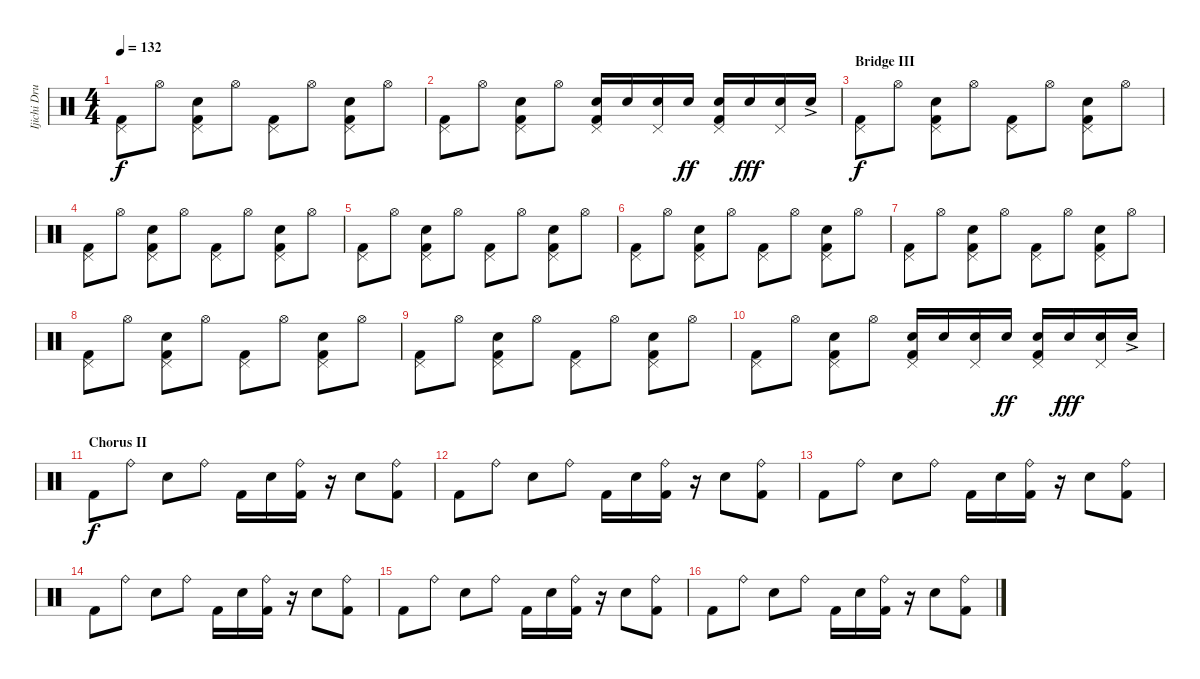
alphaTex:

\track ("Ijichi Drums" "Ijichi Dru") {instrument percussion}
\staff {score}
\articulation defaults
\ts (4 4)
\tempo 132
\clef neutral
\ks c
("Pedal Hi-Hat (hit)" "Kick (hit) 2").8{dy f} "Hi-Hat (open)".8 ("Pedal Hi-Hat (hit)" "Snare (hit) 2" "Kick (hit) 2").8 "Hi-Hat (open)".8 ("Pedal Hi-Hat (hit)" "Kick (hit) 2").8 "Hi-Hat (open)".8 ("Pedal Hi-Hat (hit)" "Snare (hit) 2" "Kick (hit) 2").8 "Hi-Hat (open)".8 |
("Pedal Hi-Hat (hit)" "Kick (hit) 2").8 "Hi-Hat (open)".8 ("Pedal Hi-Hat (hit)" "Snare (hit) 2" "Kick (hit) 2").8 "Hi-Hat (open)".8 ("Pedal Hi-Hat (hit)" "Snare (hit) 2" "Kick (hit) 2").16 "Snare (hit) 2".16 ("Pedal Hi-Hat (hit)" "Snare (hit) 2").16 "Snare (hit) 2".16{dy ff} ("Pedal Hi-Hat (hit)" "Snare (hit) 2" "Kick (hit) 2").16 "Snare (hit) 2".16{dy fff} ("Pedal Hi-Hat (hit)" "Snare (hit) 2").16 "Snare (hit) 2"{ac}.16 |
\section ("" "Bridge III")
("Pedal Hi-Hat (hit)" "Kick (hit) 2").8{dy f} "Hi-Hat (open)".8 ("Pedal Hi-Hat (hit)" "Snare (hit) 2" "Kick (hit) 2").8 "Hi-Hat (open)".8 ("Pedal Hi-Hat (hit)" "Kick (hit) 2").8 "Hi-Hat (open)".8 ("Pedal Hi-Hat (hit)" "Snare (hit) 2" "Kick (hit) 2").8 "Hi-Hat (open)".8 |
("Pedal Hi-Hat (hit)" "Kick (hit) 2").8 "Hi-Hat (open)".8 ("Pedal Hi-Hat (hit)" "Snare (hit) 2" "Kick (hit) 2").8 "Hi-Hat (open)".8 ("Pedal Hi-Hat (hit)" "Kick (hit) 2").8 "Hi-Hat (open)".8 ("Pedal Hi-Hat (hit)" "Snare (hit) 2" "Kick (hit) 2").8 "Hi-Hat (open)".8 |
("Pedal Hi-Hat (hit)" "Kick (hit) 2").8 "Hi-Hat (open)".8 ("Pedal Hi-Hat (hit)" "Snare (hit) 2" "Kick (hit) 2").8 "Hi-Hat (open)".8 ("Pedal Hi-Hat (hit)" "Kick (hit) 2").8 "Hi-Hat (open)".8 ("Pedal Hi-Hat (hit)" "Snare (hit) 2" "Kick (hit) 2").8 "Hi-Hat (open)".8 |
("Pedal Hi-Hat (hit)" "Kick (hit) 2").8 "Hi-Hat (open)".8 ("Pedal Hi-Hat (hit)" "Snare (hit) 2" "Kick (hit) 2").8 "Hi-Hat (open)".8 ("Pedal Hi-Hat (hit)" "Kick (hit) 2").8 "Hi-Hat (open)".8 ("Pedal Hi-Hat (hit)" "Snare (hit) 2" "Kick (hit) 2").8 "Hi-Hat (open)".8 |
("Pedal Hi-Hat (hit)" "Kick (hit) 2").8 "Hi-Hat (open)".8 ("Pedal Hi-Hat (hit)" "Snare (hit) 2" "Kick (hit) 2").8 "Hi-Hat (open)".8 ("Pedal Hi-Hat (hit)" "Kick (hit) 2").8 "Hi-Hat (open)".8 ("Pedal Hi-Hat (hit)" "Snare (hit) 2" "Kick (hit) 2").8 "Hi-Hat (open)".8 |
("Pedal Hi-Hat (hit)" "Kick (hit) 2").8 "Hi-Hat (open)".8 ("Pedal Hi-Hat (hit)" "Snare (hit) 2" "Kick (hit) 2").8 "Hi-Hat (open)".8 ("Pedal Hi-Hat (hit)" "Kick (hit) 2").8 "Hi-Hat (open)".8 ("Pedal Hi-Hat (hit)" "Snare (hit) 2" "Kick (hit) 2").8 "Hi-Hat (open)".8 |
("Pedal Hi-Hat (hit)" "Kick (hit) 2").8 "Hi-Hat (open)".8 ("Pedal Hi-Hat (hit)" "Snare (hit) 2" "Kick (hit) 2").8 "Hi-Hat (open)".8 ("Pedal Hi-Hat (hit)" "Kick (hit) 2").8 "Hi-Hat (open)".8 ("Pedal Hi-Hat (hit)" "Snare (hit) 2" "Kick (hit) 2").8 "Hi-Hat (open)".8 |
("Pedal Hi-Hat (hit)" "Kick (hit) 2").8 "Hi-Hat (open)".8 ("Pedal Hi-Hat (hit)" "Snare (hit) 2" "Kick (hit) 2").8 "Hi-Hat (open)".8 ("Pedal Hi-Hat (hit)" "Snare (hit) 2" "Kick (hit) 2").16 "Snare (hit) 2".16 ("Pedal Hi-Hat (hit)" "Snare (hit) 2").16 "Snare (hit) 2".16{dy ff} ("Pedal Hi-Hat (hit)" "Snare (hit) 2" "Kick (hit) 2").16 "Snare (hit) 2".16{dy fff} ("Pedal Hi-Hat (hit)" "Snare (hit) 2").16 "Snare (hit) 2"{ac}.16 |
\section ("" "Chorus II")
"Kick (hit) 2".8{dy f} "Ride (bell)".8 "Snare (hit) 2".8 "Ride (bell)".8 "Kick (hit) 2".16 "Snare (hit) 2".16 ("Ride (bell)" "Kick (hit) 2").16 r.16 "Snare (hit) 2".8 ("Ride (bell)" "Kick (hit) 2").8 |
"Kick (hit) 2".8 "Ride (bell)".8 "Snare (hit) 2".8 "Ride (bell)".8 "Kick (hit) 2".16 "Snare (hit) 2".16 ("Ride (bell)" "Kick (hit) 2").16 r.16 "Snare (hit) 2".8 ("Ride (bell)" "Kick (hit) 2").8 |
"Kick (hit) 2".8 "Ride (bell)".8 "Snare (hit) 2".8 "Ride (bell)".8 "Kick (hit) 2".16 "Snare (hit) 2".16 ("Ride (bell)" "Kick (hit) 2").16 r.16 "Snare (hit) 2".8 ("Ride (bell)" "Kick (hit) 2").8 |
"Kick (hit) 2".8 "Ride (bell)".8 "Snare (hit) 2".8 "Ride (bell)".8 "Kick (hit) 2".16 "Snare (hit) 2".16 ("Ride (bell)" "Kick (hit) 2").16 r.16 "Snare (hit) 2".8 ("Ride (bell)" "Kick (hit) 2").8 |
"Kick (hit) 2".8 "Ride (bell)".8 "Snare (hit) 2".8 "Ride (bell)".8 "Kick (hit) 2".16 "Snare (hit) 2".16 ("Ride (bell)" "Kick (hit) 2").16 r.16 "Snare (hit) 2".8 ("Ride (bell)" "Kick (hit) 2").8 |
"Kick (hit) 2".8 "Ride (bell)".8 "Snare (hit) 2".8 "Ride (bell)".8 "Kick (hit) 2".16 "Snare (hit) 2".16 ("Ride (bell)" "Kick (hit) 2").16 r.16 "Snare (hit) 2".8 ("Ride (bell)" "Kick (hit) 2").8
